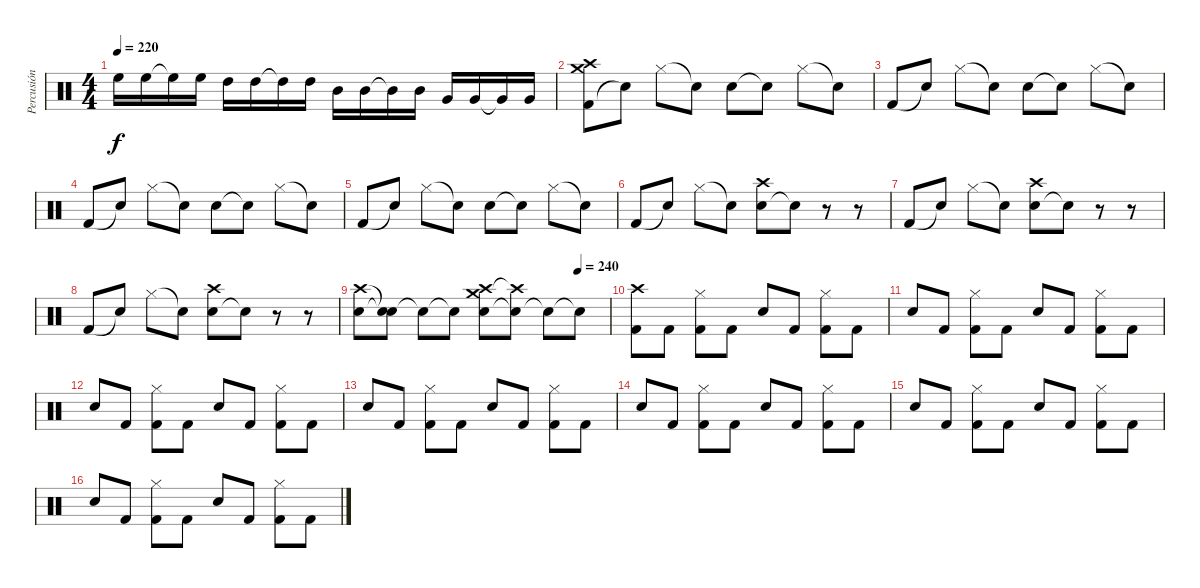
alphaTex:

\track ("Percusión" "Percusión") {instrument percussion}
\staff {score}
\articulation defaults
\ts (4 4)
\tempo 220
\clef neutral
\ks c "High Floor Tom (hit)".16{dy f} "High Floor Tom (hit)".16 "High Floor Tom (hit)"{t}.16 "High Floor Tom (hit)".16 "High Tom (hit)".16 "High Tom (hit)".16 "High Tom (hit)"{t}.16 "High Tom (hit)".16 "Mid Tom (hit)".16 "Mid Tom (hit)".16 "Mid Tom (hit)"{t}.16 "Mid Tom (hit)".16 "Very Low Tom (hit)".16 "Very Low Tom (hit)".16 "Very Low Tom (hit)"{t}.16 "Very Low Tom (hit)".16
|
("Kick (hit) 2" "Crash medium (hit)" "Crash high (hit)").8 "Snare (hit)"{t}.8 "Hi-Hat (closed)".8 "Snare (hit)"{t}.8 "Snare (hit) 2".8 "Snare (hit)"{t}.8 "Hi-Hat (closed)".8 "Snare (hit)"{t}.8 |
"Kick (hit) 2".8 "Snare (hit)"{t}.8 "Hi-Hat (closed)".8 "Snare (hit)"{t}.8 "Snare (hit) 2".8 "Snare (hit)"{t}.8 "Hi-Hat (closed)".8 "Snare (hit)"{t}.8 |
"Kick (hit) 2".8 "Snare (hit)"{t}.8 "Hi-Hat (closed)".8 "Snare (hit)"{t}.8 "Snare (hit) 2".8 "Snare (hit)"{t}.8 "Hi-Hat (closed)".8 "Snare (hit)"{t}.8 |
"Kick (hit) 2".8 "Snare (hit)"{t}.8 "Hi-Hat (closed)".8 "Snare (hit)"{t}.8 "Snare (hit) 2".8 "Snare (hit)"{t}.8 "Hi-Hat (closed)".8 "Snare (hit)"{t}.8 |
"Kick (hit) 2".8 "Snare (hit)"{t}.8 "Hi-Hat (closed)".8 "Snare (hit)"{t}.8 ("Snare (hit) 2" "Crash high (hit)").8 "Snare (hit)"{t}.8 r.8 r.8 |
"Kick (hit) 2".8 "Snare (hit)"{t}.8 "Hi-Hat (closed)".8 "Snare (hit)"{t}.8 ("Snare (hit) 2" "Crash high (hit)").8 "Snare (hit)"{t}.8 r.8 r.8 |
"Kick (hit) 2".8 "Snare (hit)"{t}.8 "Hi-Hat (closed)".8 "Snare (hit)"{t}.8 ("Snare (hit) 2" "Crash high (hit)").8 "Snare (hit)"{t}.8 r.8 r.8 |
\tempo (240 0.875)
("Snare (hit) 2" "Crash high (hit)").8 ("Snare (hit)"{t} "Snare (hit)"{t}).8 "Snare (hit)"{t}.8 "Snare (hit)"{t}.8 ("Snare (hit) 2" "Crash medium (hit)" "Crash high (hit)").8 ("Snare (hit)"{t} "Crash high (hit)"{t}).8 "Snare (hit)"{t}.8 "Snare (hit)"{t}.8 |
("Kick (hit) 2" "Crash high (hit)").8 "Kick (hit) 2".8 ("Kick (hit) 2" "Hi-Hat (closed)").8 "Kick (hit) 2".8 "Snare (hit) 2".8 "Kick (hit) 2".8 ("Kick (hit) 2" "Hi-Hat (closed)").8 "Kick (hit) 2".8 |
"Snare (hit) 2".8 "Kick (hit) 2".8 ("Kick (hit) 2" "Hi-Hat (closed)").8 "Kick (hit) 2".8 "Snare (hit) 2".8 "Kick (hit) 2".8 ("Kick (hit) 2" "Hi-Hat (closed)").8 "Kick (hit) 2".8 |
"Snare (hit) 2".8 "Kick (hit) 2".8 ("Kick (hit) 2" "Hi-Hat (closed)").8 "Kick (hit) 2".8 "Snare (hit) 2".8 "Kick (hit) 2".8 ("Kick (hit) 2" "Hi-Hat (closed)").8 "Kick (hit) 2".8 |
"Snare (hit) 2".8 "Kick (hit) 2".8 ("Kick (hit) 2" "Hi-Hat (closed)").8 "Kick (hit) 2".8 "Snare (hit) 2".8 "Kick (hit) 2".8 ("Kick (hit) 2" "Hi-Hat (closed)").8 "Kick (hit) 2".8 |
"Snare (hit) 2".8 "Kick (hit) 2".8 ("Kick (hit) 2" "Hi-Hat (closed)").8 "Kick (hit) 2".8 "Snare (hit) 2".8 "Kick (hit) 2".8 ("Kick (hit) 2" "Hi-Hat (closed)").8 "Kick (hit) 2".8 |
"Snare (hit) 2".8 "Kick (hit) 2".8 ("Kick (hit) 2" "Hi-Hat (closed)").8 "Kick (hit) 2".8 "Snare (hit) 2".8 "Kick (hit) 2".8 ("Kick (hit) 2" "Hi-Hat (closed)").8 "Kick (hit) 2".8 |
"Snare (hit) 2".8 "Kick (hit) 2".8 ("Kick (hit) 2" "Hi-Hat (closed)").8 "Kick (hit) 2".8 "Snare (hit) 2".8 "Kick (hit) 2".8 ("Kick (hit) 2" "Hi-Hat (closed)").8 "Kick (hit) 2".8
